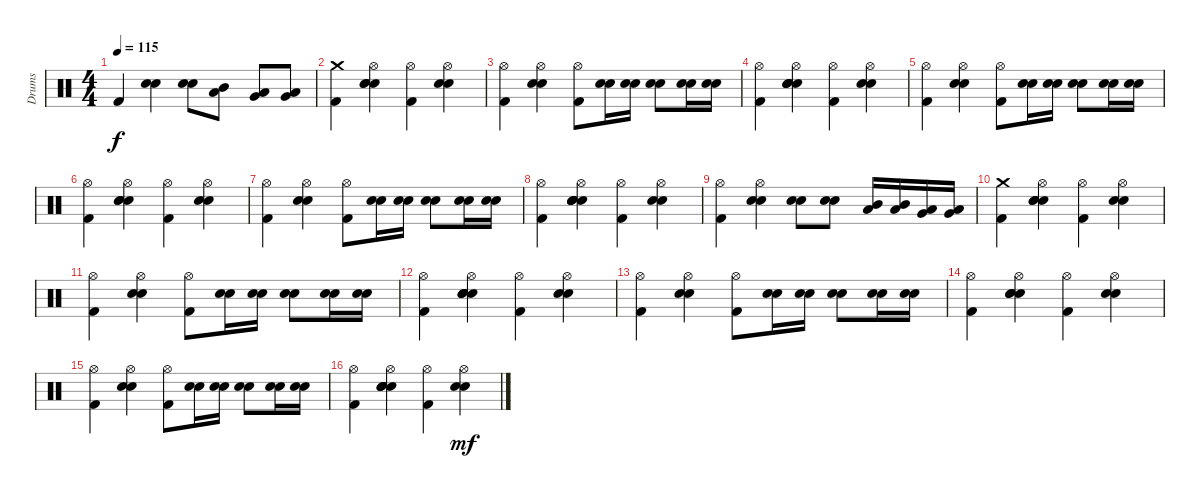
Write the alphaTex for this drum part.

\track ("Drums" "Drums") {instrument percussion}
\staff {score}
\articulation defaults
\ts (4 4)
\tempo 115
\clef neutral
\ks c "Kick (hit) 2".4{dy f}
("Snare (hit) 2" "Electric Snare (hit)").4 ("Electric Snare (hit)" "Snare (hit) 2").8 ("Mid Tom (hit)" "Low Tom (hit)").8 ("Low Tom (hit)" "Very Low Tom (hit)").8 ("Very Low Tom (hit)" "Low Floor Tom (hit)").8 |
("Crash medium (hit)" "Kick (hit) 2").4 ("Hand Clap (hit)" "Hi-Hat (open)" "Electric Snare (hit)" "Snare (hit) 2").4 ("Hi-Hat (open)" "Kick (hit) 2").4 ("Hi-Hat (open)" "Electric Snare (hit)" "Snare (hit) 2").4 |
("Hi-Hat (open)" "Kick (hit) 2").4 ("Hi-Hat (open)" "Electric Snare (hit)" "Snare (hit) 2").4 ("Hi-Hat (open)" "Kick (hit) 2").8 ("Electric Snare (hit)" "Snare (hit) 2").16 ("Electric Snare (hit)" "Snare (hit) 2").16 ("Electric Snare (hit)" "Snare (hit) 2").8 ("Electric Snare (hit)" "Snare (hit) 2").16 ("Electric Snare (hit)" "Snare (hit) 2").16 |
("Hi-Hat (open)" "Kick (hit) 2").4 ("Snare (hit) 2" "Electric Snare (hit)" "Hi-Hat (open)" "Electric Snare (hit)" "Hand Clap (hit)").4 ("Hi-Hat (open)" "Kick (hit) 2").4 ("Hi-Hat (open)" "Electric Snare (hit)" "Snare (hit) 2").4 |
("Hi-Hat (open)" "Kick (hit) 2").4 ("Hi-Hat (open)" "Electric Snare (hit)" "Snare (hit) 2").4 ("Hi-Hat (open)" "Kick (hit) 2").8 ("Electric Snare (hit)" "Snare (hit) 2").16 ("Electric Snare (hit)" "Snare (hit) 2").16 ("Electric Snare (hit)" "Snare (hit) 2").8 ("Electric Snare (hit)" "Snare (hit) 2").16 ("Electric Snare (hit)" "Snare (hit) 2").16 |
("Hi-Hat (open)" "Kick (hit) 2").4 ("Hand Clap (hit)" "Hi-Hat (open)" "Electric Snare (hit)" "Snare (hit) 2").4 ("Hi-Hat (open)" "Kick (hit) 2").4 ("Hi-Hat (open)" "Electric Snare (hit)" "Snare (hit) 2").4 |
("Hi-Hat (open)" "Kick (hit) 2").4 ("Hi-Hat (open)" "Electric Snare (hit)" "Snare (hit) 2").4 ("Hi-Hat (open)" "Kick (hit) 2").8 ("Electric Snare (hit)" "Snare (hit) 2").16 ("Electric Snare (hit)" "Snare (hit) 2").16 ("Electric Snare (hit)" "Snare (hit) 2").8 ("Electric Snare (hit)" "Snare (hit) 2").16 ("Electric Snare (hit)" "Snare (hit) 2").16 |
("Hi-Hat (open)" "Kick (hit) 2").4 ("Snare (hit) 2" "Electric Snare (hit)" "Hi-Hat (open)" "Electric Snare (hit)" "Hand Clap (hit)").4 ("Hi-Hat (open)" "Kick (hit) 2").4 ("Hi-Hat (open)" "Electric Snare (hit)" "Snare (hit) 2").4 |
("Hi-Hat (open)" "Kick (hit) 2").4 ("Hi-Hat (open)" "Electric Snare (hit)" "Snare (hit) 2").4 ("Electric Snare (hit)" "Snare (hit) 2").8 ("Electric Snare (hit)" "Snare (hit) 2").8 ("Mid Tom (hit)" "Low Tom (hit)").16 ("Mid Tom (hit)" "Low Tom (hit)").16 ("Low Tom (hit)" "Very Low Tom (hit)").16 ("Low Tom (hit)" "Very Low Tom (hit)").16 |
("Crash medium (hit)" "Kick (hit) 2").4 ("Hand Clap (hit)" "Hi-Hat (open)" "Electric Snare (hit)" "Snare (hit) 2").4 ("Hi-Hat (open)" "Kick (hit) 2").4 ("Hi-Hat (open)" "Electric Snare (hit)" "Snare (hit) 2").4 |
("Hi-Hat (open)" "Kick (hit) 2").4 ("Hi-Hat (open)" "Electric Snare (hit)" "Snare (hit) 2").4 ("Hi-Hat (open)" "Kick (hit) 2").8 ("Electric Snare (hit)" "Snare (hit) 2").16 ("Electric Snare (hit)" "Snare (hit) 2").16 ("Electric Snare (hit)" "Snare (hit) 2").8 ("Electric Snare (hit)" "Snare (hit) 2").16 ("Electric Snare (hit)" "Snare (hit) 2").16 |
("Hi-Hat (open)" "Kick (hit) 2").4 ("Snare (hit) 2" "Electric Snare (hit)" "Hi-Hat (open)" "Electric Snare (hit)" "Hand Clap (hit)").4 ("Hi-Hat (open)" "Kick (hit) 2").4 ("Hi-Hat (open)" "Electric Snare (hit)" "Snare (hit) 2").4 |
("Hi-Hat (open)" "Kick (hit) 2").4 ("Hi-Hat (open)" "Electric Snare (hit)" "Snare (hit) 2").4 ("Hi-Hat (open)" "Kick (hit) 2").8 ("Electric Snare (hit)" "Snare (hit) 2").16 ("Electric Snare (hit)" "Snare (hit) 2").16 ("Electric Snare (hit)" "Snare (hit) 2").8 ("Electric Snare (hit)" "Snare (hit) 2").16 ("Electric Snare (hit)" "Snare (hit) 2").16 |
("Hi-Hat (open)" "Kick (hit) 2").4 ("Hand Clap (hit)" "Hi-Hat (open)" "Electric Snare (hit)" "Snare (hit) 2").4 ("Hi-Hat (open)" "Kick (hit) 2").4 ("Hi-Hat (open)" "Electric Snare (hit)" "Snare (hit) 2").4 |
("Hi-Hat (open)" "Kick (hit) 2").4 ("Hi-Hat (open)" "Electric Snare (hit)" "Snare (hit) 2").4 ("Hi-Hat (open)" "Kick (hit) 2").8 ("Electric Snare (hit)" "Snare (hit) 2").16 ("Electric Snare (hit)" "Snare (hit) 2").16 ("Electric Snare (hit)" "Snare (hit) 2").8 ("Electric Snare (hit)" "Snare (hit) 2").16 ("Electric Snare (hit)" "Snare (hit) 2").16 |
("Hi-Hat (open)" "Kick (hit) 2").4 ("Snare (hit) 2" "Electric Snare (hit)" "Hi-Hat (open)" "Electric Snare (hit)" "Hand Clap (hit)").4 ("Hi-Hat (open)" "Kick (hit) 2").4 ("Hi-Hat (open)" "Electric Snare (hit)" "Snare (hit) 2").4{dy mf}
